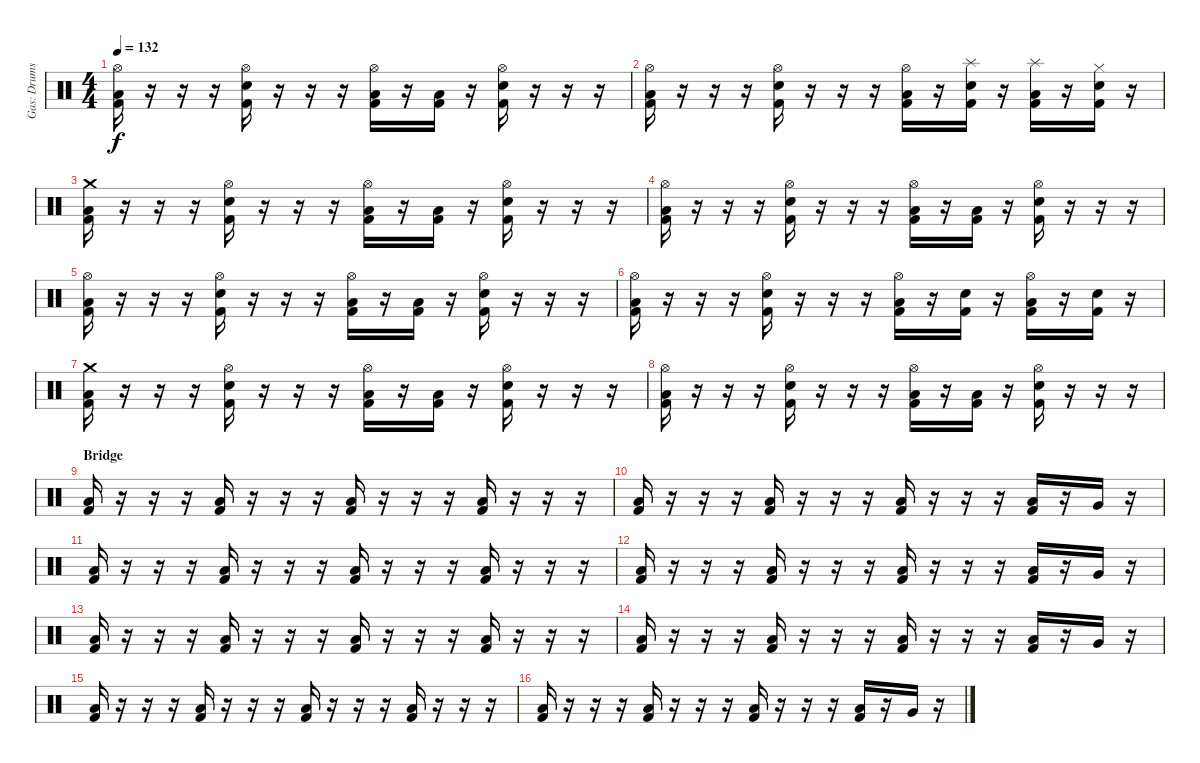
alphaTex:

\track ("Gas: Drums" "Gas: Drums") {instrument percussion}
\staff {score}
\articulation defaults
\ts (4 4)
\tempo 132
\clef neutral
\ks c
("Hi-Hat (open)" "Low Tom (hit)" "Kick (hit) 2").16{dy f} r.16 r.16 r.16 ("Hi-Hat (open)" "Electric Snare (hit)" "Kick (hit) 2").16 r.16 r.16 r.16 ("Hi-Hat (open)" "Low Tom (hit)" "Kick (hit) 2").16 r.16 ("Low Tom (hit)" "Kick (hit) 2").16 r.16 ("Hi-Hat (open)" "Electric Snare (hit)" "Kick (hit) 2").16 r.16 r.16 r.16 |
("Hi-Hat (open)" "Low Tom (hit)" "Kick (hit) 2").16 r.16 r.16 r.16 ("Hi-Hat (open)" "Electric Snare (hit)" "Kick (hit) 2").16 r.16 r.16 r.16 ("Hi-Hat (open)" "Low Tom (hit)" "Kick (hit) 2").16 r.16 ("Splash (hit)" "Electric Snare (hit)" "Kick (hit) 2").16 r.16 ("Splash (hit)" "Low Tom (hit)" "Kick (hit) 2").16 r.16 ("Hi-Hat (closed)" "Electric Snare (hit)" "Kick (hit) 2").16 r.16 |
("Crash medium (hit)" "Low Tom (hit)" "Kick (hit) 2").16 r.16 r.16 r.16 ("Hi-Hat (open)" "Electric Snare (hit)" "Kick (hit) 2").16 r.16 r.16 r.16 ("Hi-Hat (open)" "Low Tom (hit)" "Kick (hit) 2").16 r.16 ("Low Tom (hit)" "Kick (hit) 2").16 r.16 ("Hi-Hat (open)" "Electric Snare (hit)" "Kick (hit) 2").16 r.16 r.16 r.16 |
("Hi-Hat (open)" "Low Tom (hit)" "Kick (hit) 2").16 r.16 r.16 r.16 ("Hi-Hat (open)" "Electric Snare (hit)" "Kick (hit) 2").16 r.16 r.16 r.16 ("Hi-Hat (open)" "Low Tom (hit)" "Kick (hit) 2").16 r.16 ("Low Tom (hit)" "Kick (hit) 2").16 r.16 ("Hi-Hat (open)" "Electric Snare (hit)" "Kick (hit) 2").16 r.16 r.16 r.16 |
("Hi-Hat (open)" "Low Tom (hit)" "Kick (hit) 2").16 r.16 r.16 r.16 ("Hi-Hat (open)" "Electric Snare (hit)" "Kick (hit) 2").16 r.16 r.16 r.16 ("Hi-Hat (open)" "Low Tom (hit)" "Kick (hit) 2").16 r.16 ("Low Tom (hit)" "Kick (hit) 2").16 r.16 ("Hi-Hat (open)" "Electric Snare (hit)" "Kick (hit) 2").16 r.16 r.16 r.16 |
("Hi-Hat (open)" "Low Tom (hit)" "Kick (hit) 2").16 r.16 r.16 r.16 ("Hi-Hat (open)" "Electric Snare (hit)" "Kick (hit) 2").16 r.16 r.16 r.16 ("Hi-Hat (open)" "Low Tom (hit)" "Kick (hit) 2").16 r.16 ("Electric Snare (hit)" "Kick (hit) 2").16 r.16 ("Hi-Hat (open)" "Low Tom (hit)" "Kick (hit) 2").16 r.16 ("Electric Snare (hit)" "Kick (hit) 2").16 r.16 |
("Crash medium (hit)" "Low Tom (hit)" "Kick (hit) 2").16 r.16 r.16 r.16 ("Hi-Hat (open)" "Electric Snare (hit)" "Kick (hit) 2").16 r.16 r.16 r.16 ("Hi-Hat (open)" "Low Tom (hit)" "Kick (hit) 2").16 r.16 ("Low Tom (hit)" "Kick (hit) 2").16 r.16 ("Hi-Hat (open)" "Electric Snare (hit)" "Kick (hit) 2").16 r.16 r.16 r.16 |
("Hi-Hat (open)" "Low Tom (hit)" "Kick (hit) 2").16 r.16 r.16 r.16 ("Hi-Hat (open)" "Electric Snare (hit)" "Kick (hit) 2").16 r.16 r.16 r.16 ("Hi-Hat (open)" "Low Tom (hit)" "Kick (hit) 2").16 r.16 ("Low Tom (hit)" "Kick (hit) 2").16 r.16 ("Hi-Hat (open)" "Electric Snare (hit)" "Kick (hit) 2").16 r.16 r.16 r.16 |
\section ("" "Bridge ")
("Low Tom (hit)" "Kick (hit) 2").16 r.16 r.16 r.16 ("Low Tom (hit)" "Kick (hit) 2").16 r.16 r.16 r.16 ("Low Tom (hit)" "Kick (hit) 2").16 r.16 r.16 r.16 ("Low Tom (hit)" "Kick (hit) 2").16 r.16 r.16 r.16 |
("Low Tom (hit)" "Kick (hit) 2").16 r.16 r.16 r.16 ("Low Tom (hit)" "Kick (hit) 2").16 r.16 r.16 r.16 ("Low Tom (hit)" "Kick (hit) 2").16 r.16 r.16 r.16 ("Low Tom (hit)" "Kick (hit) 2").16 r.16 "Very Low Tom (hit)".16 r.16 |
("Low Tom (hit)" "Kick (hit) 2").16 r.16 r.16 r.16 ("Low Tom (hit)" "Kick (hit) 2").16 r.16 r.16 r.16 ("Low Tom (hit)" "Kick (hit) 2").16 r.16 r.16 r.16 ("Low Tom (hit)" "Kick (hit) 2").16 r.16 r.16 r.16 |
("Low Tom (hit)" "Kick (hit) 2").16 r.16 r.16 r.16 ("Low Tom (hit)" "Kick (hit) 2").16 r.16 r.16 r.16 ("Low Tom (hit)" "Kick (hit) 2").16 r.16 r.16 r.16 ("Low Tom (hit)" "Kick (hit) 2").16 r.16 "Very Low Tom (hit)".16 r.16 |
("Low Tom (hit)" "Kick (hit) 2").16 r.16 r.16 r.16 ("Low Tom (hit)" "Kick (hit) 2").16 r.16 r.16 r.16 ("Low Tom (hit)" "Kick (hit) 2").16 r.16 r.16 r.16 ("Low Tom (hit)" "Kick (hit) 2").16 r.16 r.16 r.16 |
("Low Tom (hit)" "Kick (hit) 2").16 r.16 r.16 r.16 ("Low Tom (hit)" "Kick (hit) 2").16 r.16 r.16 r.16 ("Low Tom (hit)" "Kick (hit) 2").16 r.16 r.16 r.16 ("Low Tom (hit)" "Kick (hit) 2").16 r.16 "Very Low Tom (hit)".16 r.16 |
("Low Tom (hit)" "Kick (hit) 2").16 r.16 r.16 r.16 ("Low Tom (hit)" "Kick (hit) 2").16 r.16 r.16 r.16 ("Low Tom (hit)" "Kick (hit) 2").16 r.16 r.16 r.16 ("Low Tom (hit)" "Kick (hit) 2").16 r.16 r.16 r.16 |
("Low Tom (hit)" "Kick (hit) 2").16 r.16 r.16 r.16 ("Low Tom (hit)" "Kick (hit) 2").16 r.16 r.16 r.16 ("Low Tom (hit)" "Kick (hit) 2").16 r.16 r.16 r.16 ("Low Tom (hit)" "Kick (hit) 2").16 r.16 "Very Low Tom (hit)".16 r.16
